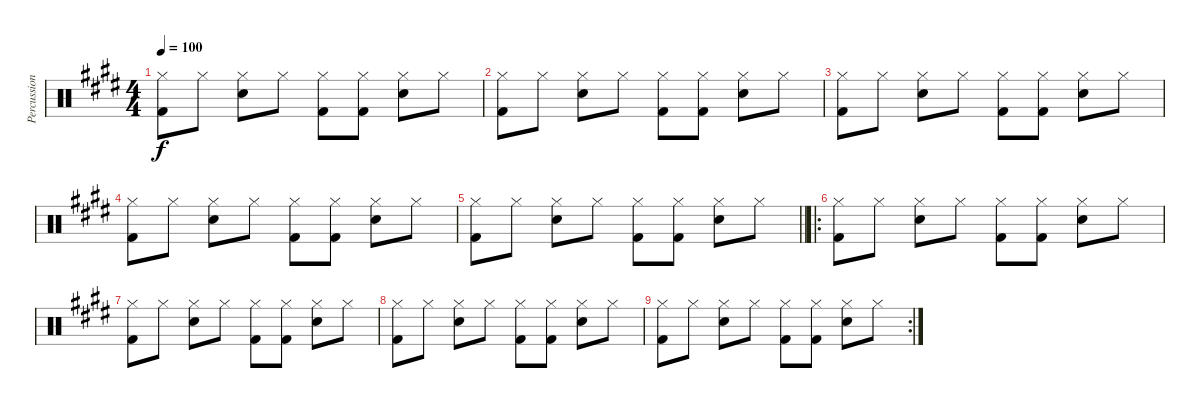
\track ("Percussion" "Percussion") {instrument percussion}
\staff {score}
\articulation defaults
\ts (4 4)
\tempo 100
\clef neutral
\ks e
("Hi-Hat (closed)" "Kick (hit) 2").8{dy f} "Hi-Hat (closed)".8 ("Hi-Hat (closed)" "Snare (hit) 2").8 "Hi-Hat (closed)".8 ("Hi-Hat (closed)" "Kick (hit) 2").8 ("Hi-Hat (closed)" "Kick (hit) 2").8 ("Hi-Hat (closed)" "Snare (hit) 2").8 "Hi-Hat (closed)".8 |
("Hi-Hat (closed)" "Kick (hit) 2").8 "Hi-Hat (closed)".8 ("Hi-Hat (closed)" "Snare (hit) 2").8 "Hi-Hat (closed)".8 ("Hi-Hat (closed)" "Kick (hit) 2").8 ("Hi-Hat (closed)" "Kick (hit) 2").8 ("Hi-Hat (closed)" "Snare (hit) 2").8 "Hi-Hat (closed)".8 |
("Hi-Hat (closed)" "Kick (hit) 2").8 "Hi-Hat (closed)".8 ("Hi-Hat (closed)" "Snare (hit) 2").8 "Hi-Hat (closed)".8 ("Hi-Hat (closed)" "Kick (hit) 2").8 ("Hi-Hat (closed)" "Kick (hit) 2").8 ("Hi-Hat (closed)" "Snare (hit) 2").8 "Hi-Hat (closed)".8 |
("Hi-Hat (closed)" "Kick (hit) 2").8 "Hi-Hat (closed)".8 ("Hi-Hat (closed)" "Snare (hit) 2").8 "Hi-Hat (closed)".8 ("Hi-Hat (closed)" "Kick (hit) 2").8 ("Hi-Hat (closed)" "Kick (hit) 2").8 ("Hi-Hat (closed)" "Snare (hit) 2").8 "Hi-Hat (closed)".8 |
\barLineRight lightlight
("Hi-Hat (closed)" "Kick (hit) 2").8 "Hi-Hat (closed)".8 ("Hi-Hat (closed)" "Snare (hit) 2").8 "Hi-Hat (closed)".8 ("Hi-Hat (closed)" "Kick (hit) 2").8 ("Hi-Hat (closed)" "Kick (hit) 2").8 ("Hi-Hat (closed)" "Snare (hit) 2").8 "Hi-Hat (closed)".8 |
\ro
("Hi-Hat (closed)" "Kick (hit) 2").8 "Hi-Hat (closed)".8 ("Hi-Hat (closed)" "Snare (hit) 2").8 "Hi-Hat (closed)".8 ("Hi-Hat (closed)" "Kick (hit) 2").8 ("Hi-Hat (closed)" "Kick (hit) 2").8 ("Hi-Hat (closed)" "Snare (hit) 2").8 "Hi-Hat (closed)".8 |
("Hi-Hat (closed)" "Kick (hit) 2").8 "Hi-Hat (closed)".8 ("Hi-Hat (closed)" "Snare (hit) 2").8 "Hi-Hat (closed)".8 ("Hi-Hat (closed)" "Kick (hit) 2").8 ("Hi-Hat (closed)" "Kick (hit) 2").8 ("Hi-Hat (closed)" "Snare (hit) 2").8 "Hi-Hat (closed)".8 |
("Hi-Hat (closed)" "Kick (hit) 2").8 "Hi-Hat (closed)".8 ("Hi-Hat (closed)" "Snare (hit) 2").8 "Hi-Hat (closed)".8 ("Hi-Hat (closed)" "Kick (hit) 2").8 ("Hi-Hat (closed)" "Kick (hit) 2").8 ("Hi-Hat (closed)" "Snare (hit) 2").8 "Hi-Hat (closed)".8 |
\rc 2
("Hi-Hat (closed)" "Kick (hit) 2").8 "Hi-Hat (closed)".8 ("Hi-Hat (closed)" "Snare (hit) 2").8 "Hi-Hat (closed)".8 ("Hi-Hat (closed)" "Kick (hit) 2").8 ("Hi-Hat (closed)" "Kick (hit) 2").8 ("Hi-Hat (closed)" "Snare (hit) 2").8 "Hi-Hat (closed)".8
